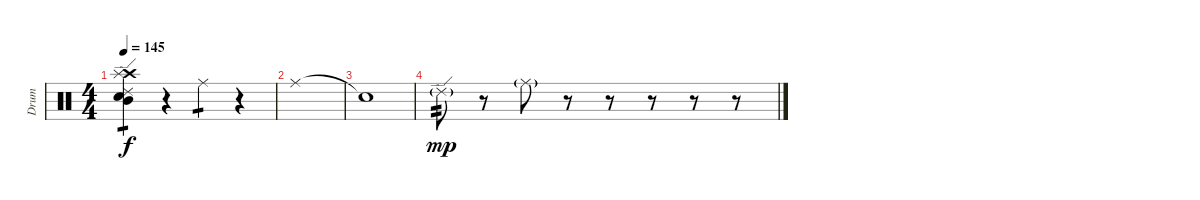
\track ("Drum" "Drum") {instrument percussion}
\staff {score}
\articulation defaults
\ts (4 4)
\tempo 145
\clef neutral
\ks c
("Mid Tom (hit)" "Ride (edge) 2" "Snare (hit) 2" "Crash high (hit)" "Splash (hit)").4{tp 1 dy f} r.4 "Ride (middle)".4{tp 1} r.4 |
"Ride (middle)".1 |
"Snare (hit)"{t}.1 |
"Ride (edge) 2"{g}.8{tp 2 dy mp} r.8 "Ride (middle)"{g}.8 r.8 r.8 r.8 r.8 r.8
